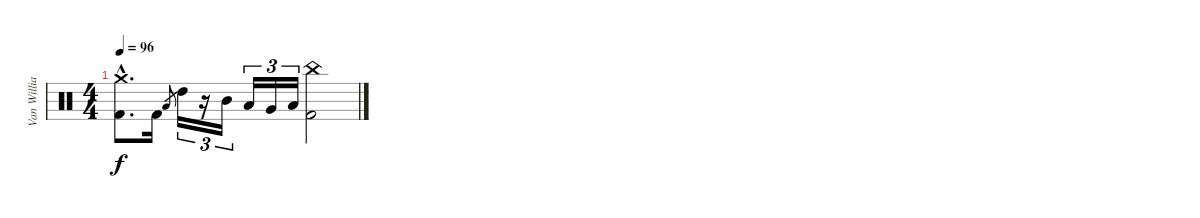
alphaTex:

\track ("Van Williams" "Van Willia") {instrument percussion}
\staff {score}
\articulation defaults
\ts (4 4)
\tempo 96
\clef neutral
\ks c
("Crash medium (hit)"{hac} "Kick (hit) 2"{hac}).8{d dy f} "Kick (hit) 2".16 "Low Tom (hit)".8{gr} "High Tom (hit)".16{tu (3 2)} r.16{tu (3 2)} "Mid Tom (hit)".16{tu (3 2)} "Low Tom (hit)".16{tu (3 2)} "Very Low Tom (hit)".16{tu (3 2)} "Low Floor Tom (hit)".16{tu (3 2)} ("China (hit)" "Kick (hit) 2").2
